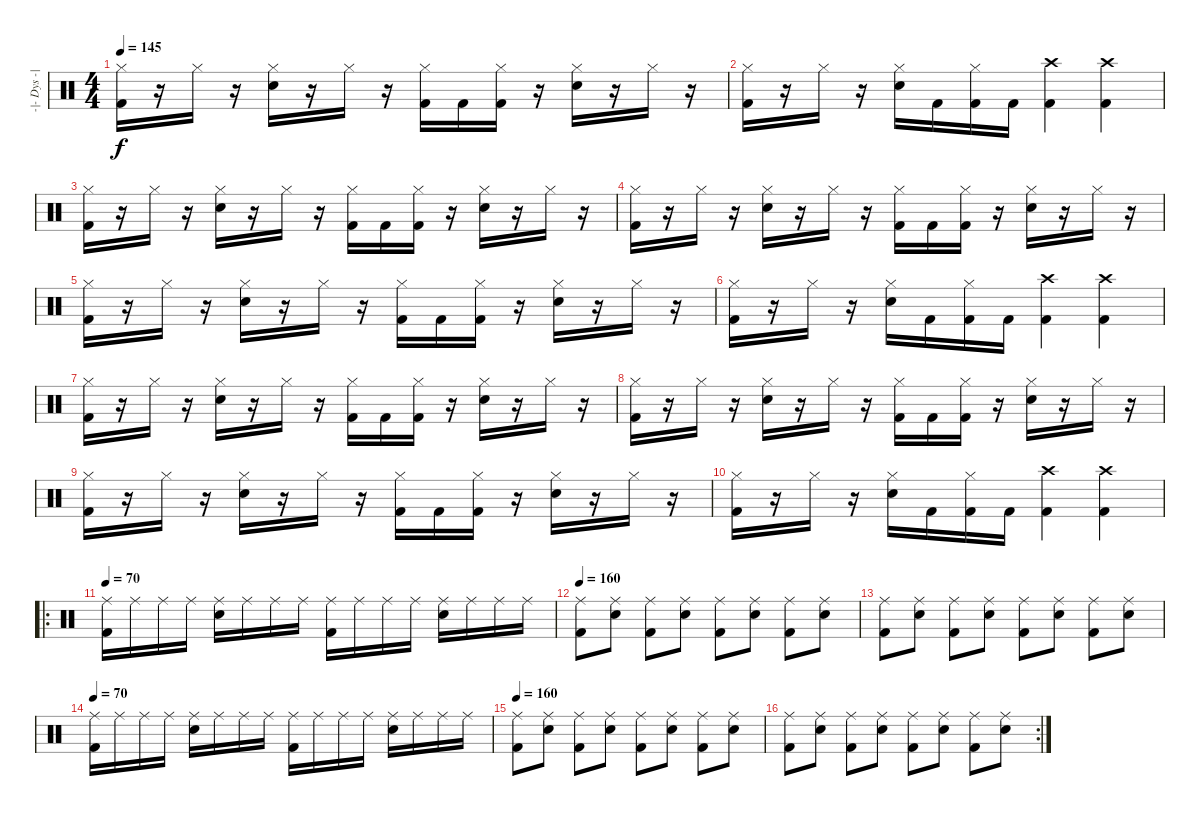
\track ("-|- Dys -|-" "-|- Dys -|") {instrument percussion}
\staff {score}
\articulation defaults
\ts (4 4)
\tempo 145
\clef neutral
\ks c
("Hi-Hat (closed)" "Kick (hit) 2").16{dy f} r.16 "Hi-Hat (closed)".16 r.16 ("Hi-Hat (closed)" "Snare (hit) 2").16 r.16 "Hi-Hat (closed)".16 r.16 ("Hi-Hat (closed)" "Kick (hit) 2").16 "Kick (hit) 2".16 ("Hi-Hat (closed)" "Kick (hit) 2").16 r.16 ("Hi-Hat (closed)" "Snare (hit) 2").16 r.16 "Hi-Hat (closed)".16 r.16 |
("Hi-Hat (closed)" "Kick (hit) 2").16 r.16 "Hi-Hat (closed)".16 r.16 ("Hi-Hat (closed)" "Snare (hit) 2").16 "Kick (hit) 2".16 ("Hi-Hat (closed)" "Kick (hit) 2").16 "Kick (hit) 2".16 ("Crash high (hit)" "Kick (hit) 2").4 ("Crash high (hit)" "Kick (hit) 2").4 |
("Hi-Hat (closed)" "Kick (hit) 2").16 r.16 "Hi-Hat (closed)".16 r.16 ("Hi-Hat (closed)" "Snare (hit) 2").16 r.16 "Hi-Hat (closed)".16 r.16 ("Hi-Hat (closed)" "Kick (hit) 2").16 "Kick (hit) 2".16 ("Hi-Hat (closed)" "Kick (hit) 2").16 r.16 ("Hi-Hat (closed)" "Snare (hit) 2").16 r.16 "Hi-Hat (closed)".16 r.16 |
("Hi-Hat (closed)" "Kick (hit) 2").16 r.16 "Hi-Hat (closed)".16 r.16 ("Hi-Hat (closed)" "Snare (hit) 2").16 r.16 "Hi-Hat (closed)".16 r.16 ("Hi-Hat (closed)" "Kick (hit) 2").16 "Kick (hit) 2".16 ("Hi-Hat (closed)" "Kick (hit) 2").16 r.16 ("Hi-Hat (closed)" "Snare (hit) 2").16 r.16 "Hi-Hat (closed)".16 r.16 |
("Hi-Hat (closed)" "Kick (hit) 2").16 r.16 "Hi-Hat (closed)".16 r.16 ("Hi-Hat (closed)" "Snare (hit) 2").16 r.16 "Hi-Hat (closed)".16 r.16 ("Hi-Hat (closed)" "Kick (hit) 2").16 "Kick (hit) 2".16 ("Hi-Hat (closed)" "Kick (hit) 2").16 r.16 ("Hi-Hat (closed)" "Snare (hit) 2").16 r.16 "Hi-Hat (closed)".16 r.16 |
("Hi-Hat (closed)" "Kick (hit) 2").16 r.16 "Hi-Hat (closed)".16 r.16 ("Hi-Hat (closed)" "Snare (hit) 2").16 "Kick (hit) 2".16 ("Hi-Hat (closed)" "Kick (hit) 2").16 "Kick (hit) 2".16 ("Crash high (hit)" "Kick (hit) 2").4 ("Crash high (hit)" "Kick (hit) 2").4 |
("Hi-Hat (closed)" "Kick (hit) 2").16 r.16 "Hi-Hat (closed)".16 r.16 ("Hi-Hat (closed)" "Snare (hit) 2").16 r.16 "Hi-Hat (closed)".16 r.16 ("Hi-Hat (closed)" "Kick (hit) 2").16 "Kick (hit) 2".16 ("Hi-Hat (closed)" "Kick (hit) 2").16 r.16 ("Hi-Hat (closed)" "Snare (hit) 2").16 r.16 "Hi-Hat (closed)".16 r.16 |
("Hi-Hat (closed)" "Kick (hit) 2").16 r.16 "Hi-Hat (closed)".16 r.16 ("Hi-Hat (closed)" "Snare (hit) 2").16 r.16 "Hi-Hat (closed)".16 r.16 ("Hi-Hat (closed)" "Kick (hit) 2").16 "Kick (hit) 2".16 ("Hi-Hat (closed)" "Kick (hit) 2").16 r.16 ("Hi-Hat (closed)" "Snare (hit) 2").16 r.16 "Hi-Hat (closed)".16 r.16 |
("Hi-Hat (closed)" "Kick (hit) 2").16 r.16 "Hi-Hat (closed)".16 r.16 ("Hi-Hat (closed)" "Snare (hit) 2").16 r.16 "Hi-Hat (closed)".16 r.16 ("Hi-Hat (closed)" "Kick (hit) 2").16 "Kick (hit) 2".16 ("Hi-Hat (closed)" "Kick (hit) 2").16 r.16 ("Hi-Hat (closed)" "Snare (hit) 2").16 r.16 "Hi-Hat (closed)".16 r.16 |
("Hi-Hat (closed)" "Kick (hit) 2").16 r.16 "Hi-Hat (closed)".16 r.16 ("Hi-Hat (closed)" "Snare (hit) 2").16 "Kick (hit) 2".16 ("Hi-Hat (closed)" "Kick (hit) 2").16 "Kick (hit) 2".16 ("Crash high (hit)" "Kick (hit) 2").4 ("Crash high (hit)" "Kick (hit) 2").4 |
\ro
\tempo 70
("Ride (middle)" "Kick (hit) 2").16 "Ride (middle)".16 "Ride (middle)".16 "Ride (middle)".16 ("Ride (middle)" "Snare (hit) 2").16 "Ride (middle)".16 "Ride (middle)".16 "Ride (middle)".16 ("Ride (middle)" "Kick (hit) 2").16 "Ride (middle)".16 "Ride (middle)".16 "Ride (middle)".16 ("Ride (middle)" "Snare (hit) 2").16 "Ride (middle)".16 "Ride (middle)".16 "Ride (middle)".16 |
\tempo 160
("Ride (middle)" "Kick (hit) 2").8 ("Ride (middle)" "Snare (hit) 2").8 ("Ride (middle)" "Kick (hit) 2").8 ("Ride (middle)" "Snare (hit) 2").8 ("Ride (middle)" "Kick (hit) 2").8 ("Ride (middle)" "Snare (hit) 2").8 ("Ride (middle)" "Kick (hit) 2").8 ("Ride (middle)" "Snare (hit) 2").8 |
("Ride (middle)" "Kick (hit) 2").8 ("Ride (middle)" "Snare (hit) 2").8 ("Ride (middle)" "Kick (hit) 2").8 ("Ride (middle)" "Snare (hit) 2").8 ("Ride (middle)" "Kick (hit) 2").8 ("Ride (middle)" "Snare (hit) 2").8 ("Ride (middle)" "Kick (hit) 2").8 ("Ride (middle)" "Snare (hit) 2").8 |
\tempo 70
("Ride (middle)" "Kick (hit) 2").16 "Ride (middle)".16 "Ride (middle)".16 "Ride (middle)".16 ("Ride (middle)" "Snare (hit) 2").16 "Ride (middle)".16 "Ride (middle)".16 "Ride (middle)".16 ("Ride (middle)" "Kick (hit) 2").16 "Ride (middle)".16 "Ride (middle)".16 "Ride (middle)".16 ("Ride (middle)" "Snare (hit) 2").16 "Ride (middle)".16 "Ride (middle)".16 "Ride (middle)".16 |
\tempo 160
("Ride (middle)" "Kick (hit) 2").8 ("Ride (middle)" "Snare (hit) 2").8 ("Ride (middle)" "Kick (hit) 2").8 ("Ride (middle)" "Snare (hit) 2").8 ("Ride (middle)" "Kick (hit) 2").8 ("Ride (middle)" "Snare (hit) 2").8 ("Ride (middle)" "Kick (hit) 2").8 ("Ride (middle)" "Snare (hit) 2").8 |
\rc 2
("Ride (middle)" "Kick (hit) 2").8 ("Ride (middle)" "Snare (hit) 2").8 ("Ride (middle)" "Kick (hit) 2").8 ("Ride (middle)" "Snare (hit) 2").8 ("Ride (middle)" "Kick (hit) 2").8 ("Ride (middle)" "Snare (hit) 2").8 ("Ride (middle)" "Kick (hit) 2").8 ("Ride (middle)" "Snare (hit) 2").8
